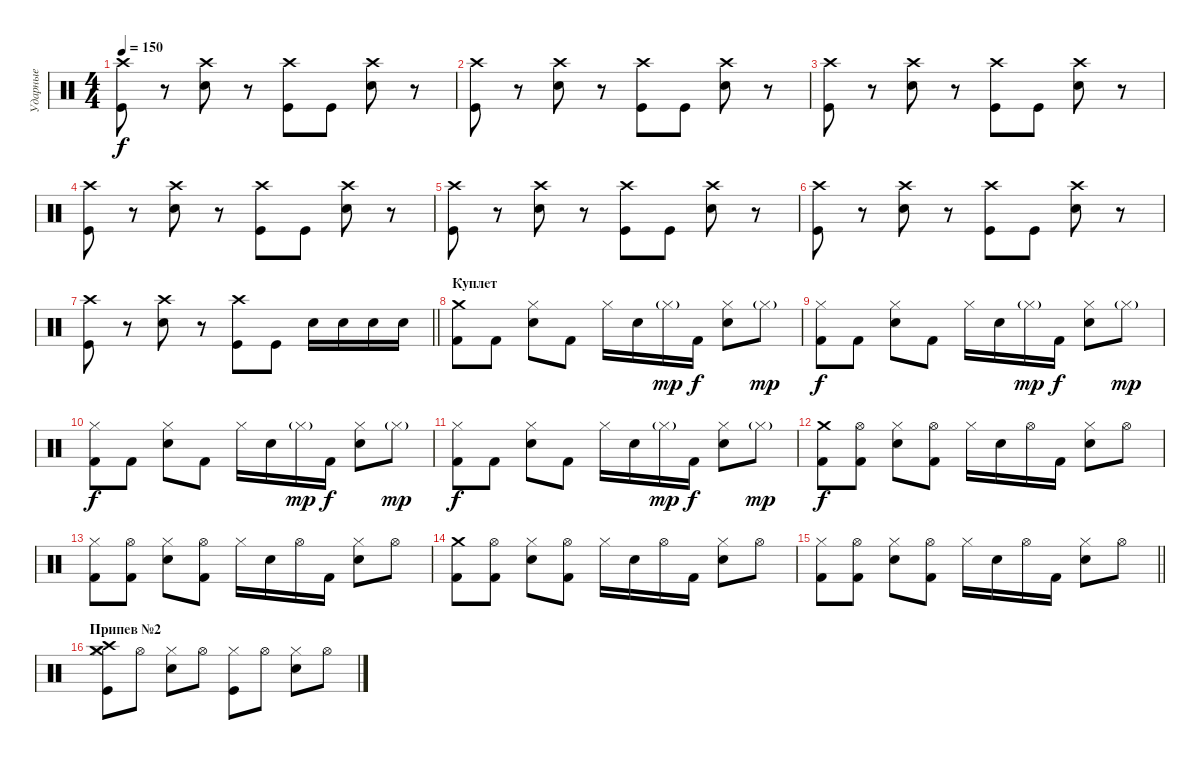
\track ("Ударные" "Ударные") {instrument percussion}
\staff {score}
\articulation defaults
\ts (4 4)
\tempo 150
\clef neutral
\ks c
("Kick (hit)" "Crash high (hit)").8{dy f} r.8 ("Electric Snare (hit)" "Crash high (hit)").8 r.8 ("Kick (hit)" "Crash high (hit)").8 "Kick (hit)".8 ("Electric Snare (hit)" "Crash high (hit)").8 r.8 |
("Kick (hit)" "Crash high (hit)").8 r.8 ("Electric Snare (hit)" "Crash high (hit)").8 r.8 ("Kick (hit)" "Crash high (hit)").8 "Kick (hit)".8 ("Electric Snare (hit)" "Crash high (hit)").8 r.8 |
("Kick (hit)" "Crash high (hit)").8 r.8 ("Electric Snare (hit)" "Crash high (hit)").8 r.8 ("Kick (hit)" "Crash high (hit)").8 "Kick (hit)".8 ("Electric Snare (hit)" "Crash high (hit)").8 r.8 |
("Kick (hit)" "Crash high (hit)").8 r.8 ("Electric Snare (hit)" "Crash high (hit)").8 r.8 ("Kick (hit)" "Crash high (hit)").8 "Kick (hit)".8 ("Electric Snare (hit)" "Crash high (hit)").8 r.8 |
("Kick (hit)" "Crash high (hit)").8 r.8 ("Electric Snare (hit)" "Crash high (hit)").8 r.8 ("Kick (hit)" "Crash high (hit)").8 "Kick (hit)".8 ("Electric Snare (hit)" "Crash high (hit)").8 r.8 |
("Kick (hit)" "Crash high (hit)").8 r.8 ("Electric Snare (hit)" "Crash high (hit)").8 r.8 ("Kick (hit)" "Crash high (hit)").8 "Kick (hit)".8 ("Electric Snare (hit)" "Crash high (hit)").8 r.8 |
\barLineRight lightlight
("Kick (hit)" "Crash high (hit)").8 r.8 ("Electric Snare (hit)" "Crash high (hit)").8 r.8 ("Kick (hit)" "Crash high (hit)").8 "Kick (hit)".8 "Electric Snare (hit)".16 "Electric Snare (hit)".16 "Electric Snare (hit)".16 "Electric Snare (hit)".16 |
\section ("" "Куплет")
("Crash medium (hit)" "Kick (hit) 2").8 "Kick (hit) 2".8 ("Snare (hit) 2" "Hi-Hat (closed)").8 "Kick (hit) 2".8 "Hi-Hat (closed)".16 "Snare (hit) 2".16 "Hi-Hat (closed)"{g}.16{dy mp} "Kick (hit) 2".16{dy f} ("Snare (hit) 2" "Hi-Hat (closed)").8 "Hi-Hat (closed)"{g}.8{dy mp} |
("Hi-Hat (closed)" "Kick (hit) 2").8{dy f} "Kick (hit) 2".8 ("Snare (hit) 2" "Hi-Hat (closed)").8 "Kick (hit) 2".8 "Hi-Hat (closed)".16 "Snare (hit) 2".16 "Hi-Hat (closed)"{g}.16{dy mp} "Kick (hit) 2".16{dy f} ("Snare (hit) 2" "Hi-Hat (closed)").8 "Hi-Hat (closed)"{g}.8{dy mp} |
("Hi-Hat (closed)" "Kick (hit) 2").8{dy f} "Kick (hit) 2".8 ("Snare (hit) 2" "Hi-Hat (closed)").8 "Kick (hit) 2".8 "Hi-Hat (closed)".16 "Snare (hit) 2".16 "Hi-Hat (closed)"{g}.16{dy mp} "Kick (hit) 2".16{dy f} ("Snare (hit) 2" "Hi-Hat (closed)").8 "Hi-Hat (closed)"{g}.8{dy mp} |
("Hi-Hat (closed)" "Kick (hit) 2").8{dy f} "Kick (hit) 2".8 ("Snare (hit) 2" "Hi-Hat (closed)").8 "Kick (hit) 2".8 "Hi-Hat (closed)".16 "Snare (hit) 2".16 "Hi-Hat (closed)"{g}.16{dy mp} "Kick (hit) 2".16{dy f} ("Snare (hit) 2" "Hi-Hat (closed)").8 "Hi-Hat (closed)"{g}.8{dy mp} |
("Crash medium (hit)" "Kick (hit) 2").8{dy f} ("Kick (hit) 2" "Hi-Hat (open)").8 ("Snare (hit) 2" "Hi-Hat (closed)").8 ("Kick (hit) 2" "Hi-Hat (open)").8 "Hi-Hat (closed)".16 "Snare (hit) 2".16 "Hi-Hat (open)".16 "Kick (hit) 2".16 ("Snare (hit) 2" "Hi-Hat (closed)").8 "Hi-Hat (open)".8 |
("Hi-Hat (closed)" "Kick (hit) 2").8 ("Kick (hit) 2" "Hi-Hat (open)").8 ("Snare (hit) 2" "Hi-Hat (closed)").8 ("Kick (hit) 2" "Hi-Hat (open)").8 "Hi-Hat (closed)".16 "Snare (hit) 2".16 "Hi-Hat (open)".16 "Kick (hit) 2".16 ("Snare (hit) 2" "Hi-Hat (closed)").8 "Hi-Hat (open)".8 |
("Crash medium (hit)" "Kick (hit) 2").8 ("Kick (hit) 2" "Hi-Hat (open)").8 ("Snare (hit) 2" "Hi-Hat (closed)").8 ("Kick (hit) 2" "Hi-Hat (open)").8 "Hi-Hat (closed)".16 "Snare (hit) 2".16 "Hi-Hat (open)".16 "Kick (hit) 2".16 ("Snare (hit) 2" "Hi-Hat (closed)").8 "Hi-Hat (open)".8 |
\barLineRight lightlight
("Hi-Hat (closed)" "Kick (hit) 2").8 ("Kick (hit) 2" "Hi-Hat (open)").8 ("Snare (hit) 2" "Hi-Hat (closed)").8 ("Kick (hit) 2" "Hi-Hat (open)").8 "Hi-Hat (closed)".16 "Snare (hit) 2".16 "Hi-Hat (open)".16 "Kick (hit) 2".16 ("Snare (hit) 2" "Hi-Hat (closed)").8 "Hi-Hat (open)".8 |
\section ("" "Припев №2")
("Kick (hit)" "Hi-Hat (closed)" "Crash high (hit)" "Crash medium (hit)").8 "Hi-Hat (open)".8 ("Electric Snare (hit)" "Hi-Hat (closed)").8 "Hi-Hat (open)".8 ("Kick (hit)" "Hi-Hat (closed)").8 "Hi-Hat (open)".8 ("Electric Snare (hit)" "Hi-Hat (closed)").8 "Hi-Hat (open)".8
